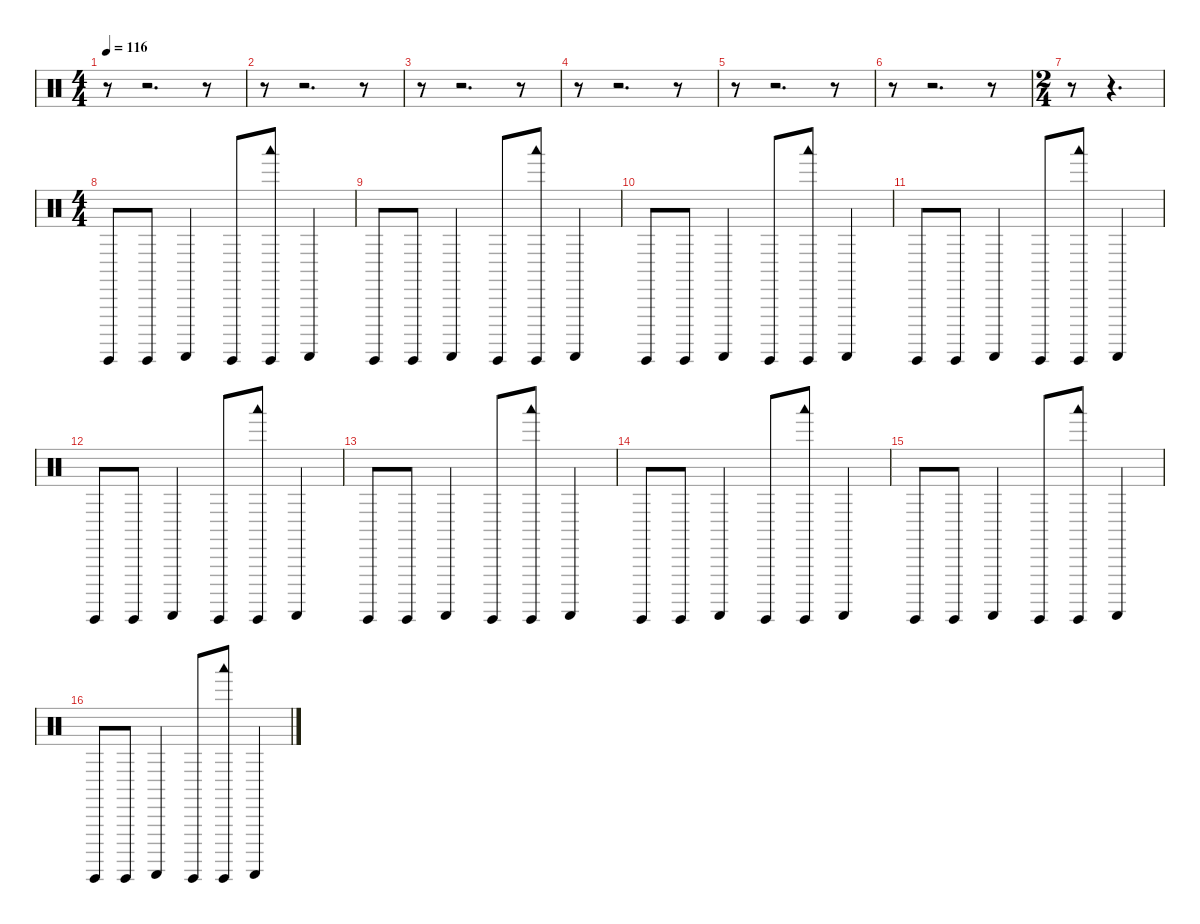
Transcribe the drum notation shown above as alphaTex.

\defaultSystemsLayout 4
\hideDynamics
\bracketExtendMode nobrackets
\singleTrackTrackNamePolicy hidden
\multiTrackTrackNamePolicy hidden
\firstSystemTrackNameMode fullname
\firstSystemTrackNameOrientation horizontal
\otherSystemsTrackNameOrientation horizontal
\track ("Percussions" "drm.") {instrument percussion}
\staff {score}
\articulation defaults
\ts (4 4)
\tempo 116
\clef neutral
\ks c
r.8{dy f beam Down} r.2{d beam Down} r.8{beam Down} |
r.8{beam Down} r.2{d beam Down} r.8{beam Down} |
r.8{beam Down} r.2{d beam Down} r.8{beam Down} |
r.8{beam Down} r.2{d beam Down} r.8{beam Down} |
r.8{beam Down} r.2{d beam Down} r.8{beam Down} |
r.8{beam Down} r.2{d beam Down} r.8{beam Down} |
\ts (2 4)
r.8{beam Down} r.4{d beam Down} |
\ts (4 4)
"Guiro (hit)".8{beam Up} "Guiro (hit)".8{beam Up} "Guiro (scrap-return)".4{beam Up} "Guiro (hit)".8{beam Up} ("Guiro (hit)" "Woodblock low (hit)").8{beam Up} "Guiro (scrap-return)".4{beam Up} |
"Guiro (hit)".8{beam Up} "Guiro (hit)".8{beam Up} "Guiro (scrap-return)".4{beam Up} "Guiro (hit)".8{beam Up} ("Guiro (hit)" "Woodblock low (hit)").8{beam Up} "Guiro (scrap-return)".4{beam Up} |
"Guiro (hit)".8{beam Up} "Guiro (hit)".8{beam Up} "Guiro (scrap-return)".4{beam Up} "Guiro (hit)".8{beam Up} ("Guiro (hit)" "Woodblock low (hit)").8{beam Up} "Guiro (scrap-return)".4{beam Up} |
"Guiro (hit)".8{beam Up} "Guiro (hit)".8{beam Up} "Guiro (scrap-return)".4{beam Up} "Guiro (hit)".8{beam Up} ("Guiro (hit)" "Woodblock low (hit)").8{beam Up} "Guiro (scrap-return)".4{beam Up} |
"Guiro (hit)".8{beam Up} "Guiro (hit)".8{beam Up} "Guiro (scrap-return)".4{beam Up} "Guiro (hit)".8{beam Up} ("Guiro (hit)" "Woodblock low (hit)").8{beam Up} "Guiro (scrap-return)".4{beam Up} |
"Guiro (hit)".8{beam Up} "Guiro (hit)".8{beam Up} "Guiro (scrap-return)".4{beam Up} "Guiro (hit)".8{beam Up} ("Guiro (hit)" "Woodblock low (hit)").8{beam Up} "Guiro (scrap-return)".4{beam Up} |
"Guiro (hit)".8{beam Up} "Guiro (hit)".8{beam Up} "Guiro (scrap-return)".4{beam Up} "Guiro (hit)".8{beam Up} ("Guiro (hit)" "Woodblock low (hit)").8{beam Up} "Guiro (scrap-return)".4{beam Up} |
"Guiro (hit)".8{beam Up} "Guiro (hit)".8{beam Up} "Guiro (scrap-return)".4{beam Up} "Guiro (hit)".8{beam Up} ("Guiro (hit)" "Woodblock low (hit)").8{beam Up} "Guiro (scrap-return)".4{beam Up} |
"Guiro (hit)".8{beam Up} "Guiro (hit)".8{beam Up} "Guiro (scrap-return)".4{beam Up} "Guiro (hit)".8{beam Up} ("Guiro (hit)" "Woodblock low (hit)").8{beam Up} "Guiro (scrap-return)".4{beam Up}
